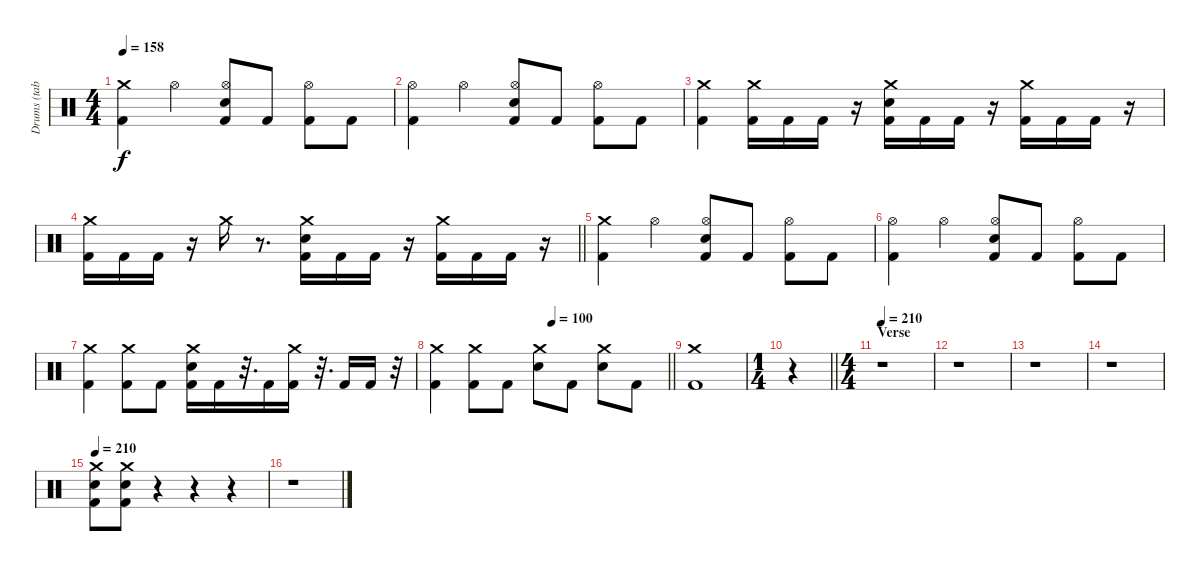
\track ("Drums (tabbed by bassman213293)" "Drums (tab") {instrument percussion}
\staff {score}
\articulation defaults
\ts (4 4)
\tempo 158
\clef neutral
\ks c
("Crash medium (hit)" "Kick (hit) 2").4{dy f} "Hi-Hat (open)".4 ("Hi-Hat (open)" "Electric Snare (hit)" "Kick (hit) 2").8 "Kick (hit) 2".8 ("Hi-Hat (open)" "Kick (hit) 2").8 "Kick (hit) 2".8 |
("Hi-Hat (open)" "Kick (hit) 2").4 "Hi-Hat (open)".4 ("Hi-Hat (open)" "Electric Snare (hit)" "Kick (hit) 2").8 "Kick (hit) 2".8 ("Hi-Hat (open)" "Kick (hit) 2").8 "Kick (hit) 2".8 |
("Crash medium (hit)" "Kick (hit) 2").4 ("Crash medium (hit)" "Kick (hit) 2").16 "Kick (hit) 2".16 "Kick (hit) 2".16 r.16 ("Crash medium (hit)" "Electric Snare (hit)" "Kick (hit) 2").16 "Kick (hit) 2".16 "Kick (hit) 2".16 r.16 ("Crash medium (hit)" "Kick (hit) 2").16 "Kick (hit) 2".16 "Kick (hit) 2".16 r.16 |
\barLineRight lightlight
("Crash medium (hit)" "Kick (hit) 2").16 "Kick (hit) 2".16 "Kick (hit) 2".16 r.16 "Crash medium (hit)".16 r.8{d} ("Crash medium (hit)" "Electric Snare (hit)" "Kick (hit) 2").16 "Kick (hit) 2".16 "Kick (hit) 2".16 r.16 ("Crash medium (hit)" "Kick (hit) 2").16 "Kick (hit) 2".16 "Kick (hit) 2".16 r.16 |
("Crash medium (hit)" "Kick (hit) 2").4 "Hi-Hat (open)".4 ("Hi-Hat (open)" "Electric Snare (hit)" "Kick (hit) 2").8 "Kick (hit) 2".8 ("Hi-Hat (open)" "Kick (hit) 2").8 "Kick (hit) 2".8 |
("Hi-Hat (open)" "Kick (hit) 2").4 "Hi-Hat (open)".4 ("Hi-Hat (open)" "Electric Snare (hit)" "Kick (hit) 2").8 "Kick (hit) 2".8 ("Hi-Hat (open)" "Kick (hit) 2").8 "Kick (hit) 2".8 |
("Crash medium (hit)" "Kick (hit) 2").4 ("Crash medium (hit)" "Kick (hit) 2").8 "Kick (hit) 2".8 ("Crash medium (hit)" "Electric Snare (hit)" "Kick (hit) 2").16 "Kick (hit) 2".16 r.32{d} "Kick (hit) 2".16 ("Crash medium (hit)" "Kick (hit) 2").16 r.32{d} "Kick (hit) 2".16 "Kick (hit) 2".16 r.32 |
\tempo (100 0.5)
\barLineRight lightlight
("Crash medium (hit)" "Kick (hit) 2").4 ("Crash medium (hit)" "Kick (hit) 2").8 "Kick (hit) 2".8 ("Crash medium (hit)" "Electric Snare (hit)").8 "Kick (hit) 2".8 ("Crash medium (hit)" "Electric Snare (hit)").8 "Kick (hit) 2".8 |
("Crash medium (hit)" "Kick (hit) 2").1 |
\ts (1 4)
\barLineRight lightlight
r.4 |
\ts (4 4)
\section ("" "Verse")
\tempo 210
r.1 |
r.1 |
r.1 |
r.1 |
\tempo 210
("Crash medium (hit)" "Electric Snare (hit)" "Kick (hit) 2").8 ("Crash medium (hit)" "Electric Snare (hit)" "Kick (hit) 2").8 r.4 r.4 r.4 |
r.1
